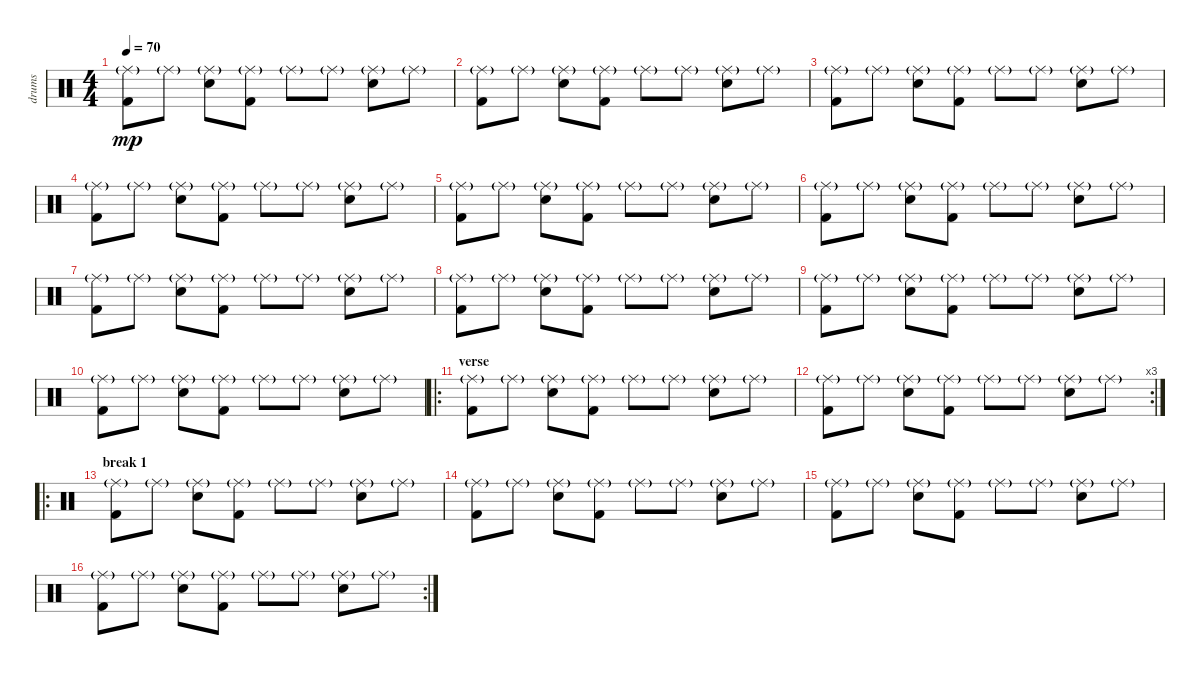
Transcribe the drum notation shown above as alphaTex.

\track ("drums" "drums") {instrument percussion}
\staff {score}
\articulation defaults
\ts (4 4)
\tempo 70
\clef neutral
\ks c
("Kick (hit) 2" "Ride (middle)"{g}).8{dy mp} "Ride (middle)"{g}.8 ("Snare (hit) 2" "Ride (middle)"{g}).8 ("Kick (hit) 2" "Ride (middle)"{g}).8 "Ride (middle)"{g}.8 "Ride (middle)"{g}.8 ("Snare (hit) 2" "Ride (middle)"{g}).8 "Ride (middle)"{g}.8 |
("Kick (hit) 2" "Ride (middle)"{g}).8 "Ride (middle)"{g}.8 ("Snare (hit) 2" "Ride (middle)"{g}).8 ("Kick (hit) 2" "Ride (middle)"{g}).8 "Ride (middle)"{g}.8 "Ride (middle)"{g}.8 ("Snare (hit) 2" "Ride (middle)"{g}).8 "Ride (middle)"{g}.8 |
("Kick (hit) 2" "Ride (middle)"{g}).8 "Ride (middle)"{g}.8 ("Snare (hit) 2" "Ride (middle)"{g}).8 ("Kick (hit) 2" "Ride (middle)"{g}).8 "Ride (middle)"{g}.8 "Ride (middle)"{g}.8 ("Snare (hit) 2" "Ride (middle)"{g}).8 "Ride (middle)"{g}.8 |
("Kick (hit) 2" "Ride (middle)"{g}).8 "Ride (middle)"{g}.8 ("Snare (hit) 2" "Ride (middle)"{g}).8 ("Kick (hit) 2" "Ride (middle)"{g}).8 "Ride (middle)"{g}.8 "Ride (middle)"{g}.8 ("Snare (hit) 2" "Ride (middle)"{g}).8 "Ride (middle)"{g}.8 |
("Kick (hit) 2" "Ride (middle)"{g}).8 "Ride (middle)"{g}.8 ("Snare (hit) 2" "Ride (middle)"{g}).8 ("Kick (hit) 2" "Ride (middle)"{g}).8 "Ride (middle)"{g}.8 "Ride (middle)"{g}.8 ("Snare (hit) 2" "Ride (middle)"{g}).8 "Ride (middle)"{g}.8 |
("Kick (hit) 2" "Ride (middle)"{g}).8 "Ride (middle)"{g}.8 ("Snare (hit) 2" "Ride (middle)"{g}).8 ("Kick (hit) 2" "Ride (middle)"{g}).8 "Ride (middle)"{g}.8 "Ride (middle)"{g}.8 ("Snare (hit) 2" "Ride (middle)"{g}).8 "Ride (middle)"{g}.8 |
("Kick (hit) 2" "Ride (middle)"{g}).8 "Ride (middle)"{g}.8 ("Snare (hit) 2" "Ride (middle)"{g}).8 ("Kick (hit) 2" "Ride (middle)"{g}).8 "Ride (middle)"{g}.8 "Ride (middle)"{g}.8 ("Snare (hit) 2" "Ride (middle)"{g}).8 "Ride (middle)"{g}.8 |
("Kick (hit) 2" "Ride (middle)"{g}).8 "Ride (middle)"{g}.8 ("Snare (hit) 2" "Ride (middle)"{g}).8 ("Kick (hit) 2" "Ride (middle)"{g}).8 "Ride (middle)"{g}.8 "Ride (middle)"{g}.8 ("Snare (hit) 2" "Ride (middle)"{g}).8 "Ride (middle)"{g}.8 |
("Kick (hit) 2" "Ride (middle)"{g}).8 "Ride (middle)"{g}.8 ("Snare (hit) 2" "Ride (middle)"{g}).8 ("Kick (hit) 2" "Ride (middle)"{g}).8 "Ride (middle)"{g}.8 "Ride (middle)"{g}.8 ("Snare (hit) 2" "Ride (middle)"{g}).8 "Ride (middle)"{g}.8 |
("Kick (hit) 2" "Ride (middle)"{g}).8 "Ride (middle)"{g}.8 ("Snare (hit) 2" "Ride (middle)"{g}).8 ("Kick (hit) 2" "Ride (middle)"{g}).8 "Ride (middle)"{g}.8 "Ride (middle)"{g}.8 ("Snare (hit) 2" "Ride (middle)"{g}).8 "Ride (middle)"{g}.8 |
\ro
\section ("" "verse ")
("Kick (hit) 2" "Ride (middle)"{g}).8 "Ride (middle)"{g}.8 ("Snare (hit) 2" "Ride (middle)"{g}).8 ("Kick (hit) 2" "Ride (middle)"{g}).8 "Ride (middle)"{g}.8 "Ride (middle)"{g}.8 ("Snare (hit) 2" "Ride (middle)"{g}).8 "Ride (middle)"{g}.8 |
\rc 3
("Kick (hit) 2" "Ride (middle)"{g}).8 "Ride (middle)"{g}.8 ("Snare (hit) 2" "Ride (middle)"{g}).8 ("Kick (hit) 2" "Ride (middle)"{g}).8 "Ride (middle)"{g}.8 "Ride (middle)"{g}.8 ("Snare (hit) 2" "Ride (middle)"{g}).8 "Ride (middle)"{g}.8 |
\ro
\section ("" "break 1")
("Kick (hit) 2" "Ride (middle)"{g}).8 "Ride (middle)"{g}.8 ("Snare (hit) 2" "Ride (middle)"{g}).8 ("Kick (hit) 2" "Ride (middle)"{g}).8 "Ride (middle)"{g}.8 "Ride (middle)"{g}.8 ("Snare (hit) 2" "Ride (middle)"{g}).8 "Ride (middle)"{g}.8 |
("Kick (hit) 2" "Ride (middle)"{g}).8 "Ride (middle)"{g}.8 ("Snare (hit) 2" "Ride (middle)"{g}).8 ("Kick (hit) 2" "Ride (middle)"{g}).8 "Ride (middle)"{g}.8 "Ride (middle)"{g}.8 ("Snare (hit) 2" "Ride (middle)"{g}).8 "Ride (middle)"{g}.8 |
("Kick (hit) 2" "Ride (middle)"{g}).8 "Ride (middle)"{g}.8 ("Snare (hit) 2" "Ride (middle)"{g}).8 ("Kick (hit) 2" "Ride (middle)"{g}).8 "Ride (middle)"{g}.8 "Ride (middle)"{g}.8 ("Snare (hit) 2" "Ride (middle)"{g}).8 "Ride (middle)"{g}.8 |
\rc 2
("Kick (hit) 2" "Ride (middle)"{g}).8 "Ride (middle)"{g}.8 ("Snare (hit) 2" "Ride (middle)"{g}).8 ("Kick (hit) 2" "Ride (middle)"{g}).8 "Ride (middle)"{g}.8 "Ride (middle)"{g}.8 ("Snare (hit) 2" "Ride (middle)"{g}).8 "Ride (middle)"{g}.8
